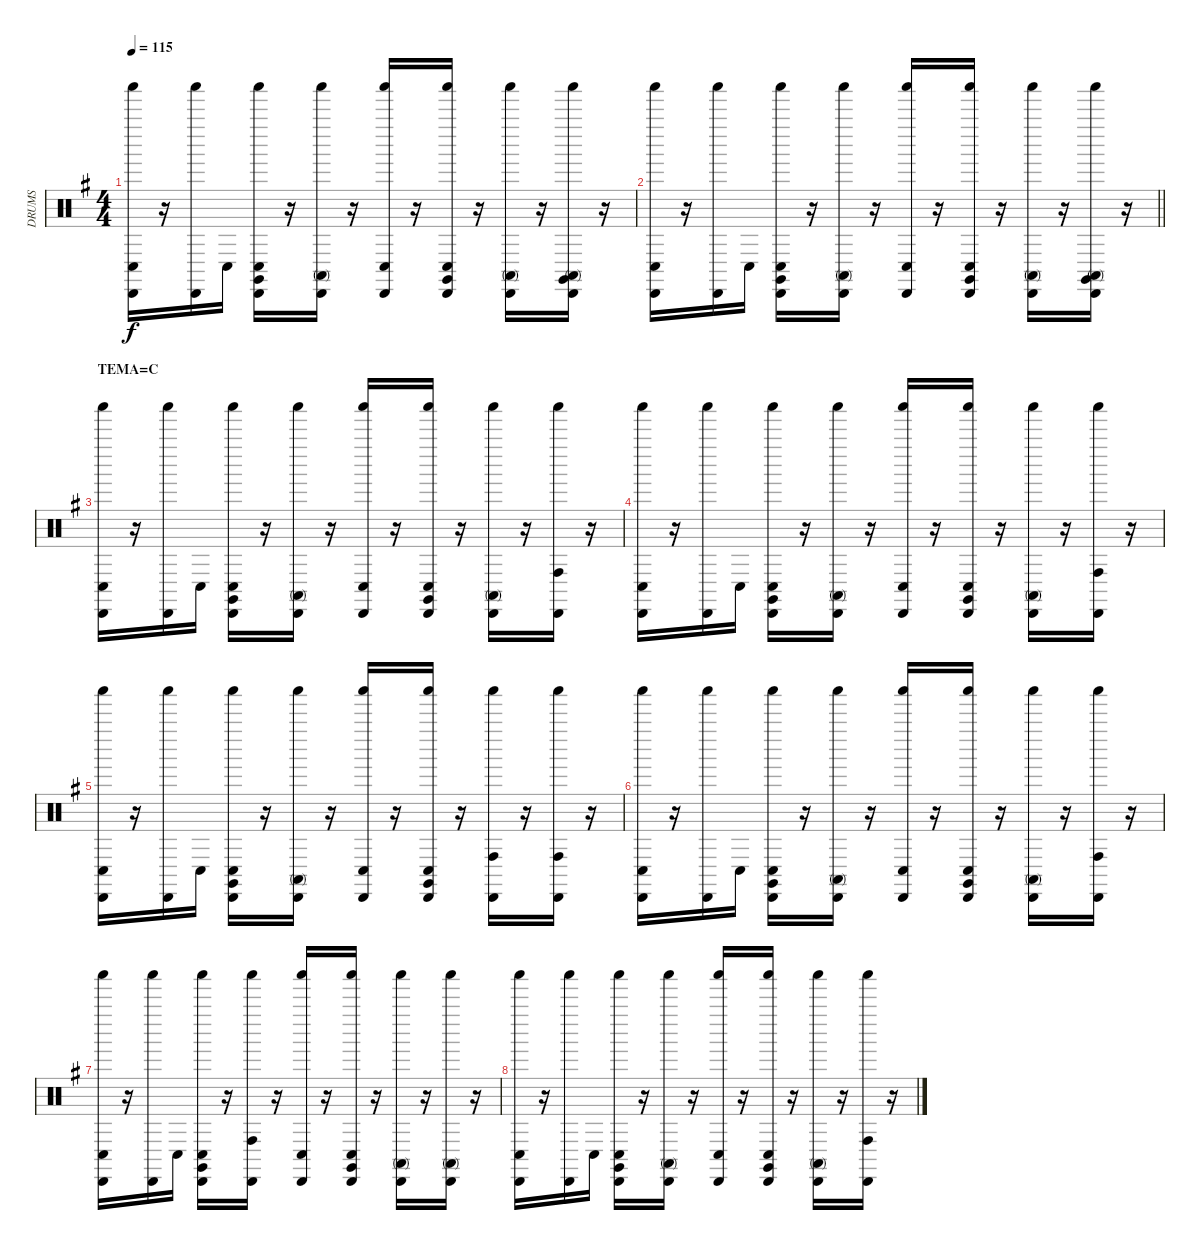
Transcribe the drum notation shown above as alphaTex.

\track ("DRUMS" "DRUMS") {instrument percussion}
\staff {score}
\articulation defaults
\ts (4 4)
\tempo 115
\clef neutral
\ks eminor
("Conga low (hit)" "Shaker (hit)" "Cabasa (hit)").16{dy f} r.16 ("Shaker (hit)" "Cabasa (hit)").16 "Conga low (hit)".16 ("Claves (hit)" "Shaker (hit)" "Conga low (hit)" "Cabasa (hit)").16 r.16 ("Conga high (mute)" "Cabasa (hit)" "Shaker (hit)").16 r.16 ("Shaker (hit)" "Cabasa (hit)" "Conga low (hit)").16 r.16 ("Claves (hit)" "Shaker (hit)" "Cabasa (hit)" "Conga low (hit)").16 r.16 ("Cabasa (hit)" "Shaker (hit)" "Conga high (mute)").16 r.16 ("Conga high (mute)" "Cabasa (hit)" "Claves (hit)" "Shaker (hit)").16 r.16 |
\barLineRight lightlight
("Shaker (hit)" "Conga low (hit)" "Cabasa (hit)").16 r.16 ("Cabasa (hit)" "Shaker (hit)").16 "Conga low (hit)".16 ("Claves (hit)" "Cabasa (hit)" "Conga low (hit)" "Shaker (hit)").16 r.16 ("Shaker (hit)" "Cabasa (hit)" "Conga high (mute)").16 r.16 ("Cabasa (hit)" "Conga low (hit)" "Shaker (hit)").16 r.16 ("Conga low (hit)" "Claves (hit)" "Cabasa (hit)" "Shaker (hit)").16 r.16 ("Shaker (hit)" "Cabasa (hit)" "Conga high (mute)").16 r.16 ("Conga high (mute)" "Shaker (hit)" "Cabasa (hit)" "Claves (hit)").16 r.16 |
\section ("" "TEMA=C")
("Conga low (hit)" "Cabasa (hit)" "Shaker (hit)").16 r.16 ("Shaker (hit)" "Cabasa (hit)").16 "Conga low (hit)".16 ("Shaker (hit)" "Cabasa (hit)" "Claves (hit)" "Conga low (hit)").16 r.16 ("Conga high (mute)" "Cabasa (hit)" "Shaker (hit)").16 r.16 ("Conga low (hit)" "Shaker (hit)" "Cabasa (hit)").16 r.16 ("Conga low (hit)" "Cabasa (hit)" "Shaker (hit)" "Claves (hit)").16 r.16 ("Shaker (hit)" "Cabasa (hit)" "Conga high (mute)").16 r.16 ("Shaker (hit)" "Cabasa (hit)" "Conga high (hit)").16 r.16 |
("Cabasa (hit)" "Shaker (hit)" "Conga low (hit)").16 r.16 ("Shaker (hit)" "Cabasa (hit)").16 "Conga low (hit)".16 ("Conga low (hit)" "Cabasa (hit)" "Claves (hit)" "Shaker (hit)").16 r.16 ("Cabasa (hit)" "Conga high (mute)" "Shaker (hit)").16 r.16 ("Shaker (hit)" "Conga low (hit)" "Cabasa (hit)").16 r.16 ("Shaker (hit)" "Claves (hit)" "Conga low (hit)" "Cabasa (hit)").16 r.16 ("Conga high (mute)" "Cabasa (hit)" "Shaker (hit)").16 r.16 ("Shaker (hit)" "Cabasa (hit)" "Conga high (hit)").16 r.16 |
("Shaker (hit)" "Conga low (hit)" "Cabasa (hit)").16 r.16 ("Cabasa (hit)" "Shaker (hit)").16 "Conga low (hit)".16 ("Cabasa (hit)" "Shaker (hit)" "Conga low (hit)" "Claves (hit)").16 r.16 ("Conga high (mute)" "Shaker (hit)" "Cabasa (hit)").16 r.16 ("Conga low (hit)" "Cabasa (hit)" "Shaker (hit)").16 r.16 ("Cabasa (hit)" "Shaker (hit)" "Conga low (hit)" "Claves (hit)").16 r.16 ("Conga high (hit)" "Shaker (hit)" "Cabasa (hit)").16 r.16 ("Shaker (hit)" "Conga high (hit)" "Cabasa (hit)").16 r.16 |
("Conga low (hit)" "Shaker (hit)" "Cabasa (hit)").16 r.16 ("Cabasa (hit)" "Shaker (hit)").16 "Conga low (hit)".16 ("Conga low (hit)" "Cabasa (hit)" "Claves (hit)" "Shaker (hit)").16 r.16 ("Conga high (mute)" "Shaker (hit)" "Cabasa (hit)").16 r.16 ("Shaker (hit)" "Conga low (hit)" "Cabasa (hit)").16 r.16 ("Cabasa (hit)" "Claves (hit)" "Conga low (hit)" "Shaker (hit)").16 r.16 ("Conga high (mute)" "Shaker (hit)" "Cabasa (hit)").16 r.16 ("Shaker (hit)" "Cabasa (hit)" "Conga high (hit)").16 r.16 |
("Conga low (hit)" "Cabasa (hit)" "Shaker (hit)").16 r.16 ("Cabasa (hit)" "Shaker (hit)").16 "Conga low (hit)".16 ("Claves (hit)" "Shaker (hit)" "Cabasa (hit)" "Conga low (hit)").16 r.16 ("Conga high (hit)" "Cabasa (hit)" "Shaker (hit)").16 r.16 ("Cabasa (hit)" "Conga low (hit)" "Shaker (hit)").16 r.16 ("Shaker (hit)" "Conga low (hit)" "Claves (hit)" "Cabasa (hit)").16 r.16 ("Shaker (hit)" "Cabasa (hit)" "Conga high (mute)").16 r.16 ("Conga high (mute)" "Cabasa (hit)" "Shaker (hit)").16 r.16 |
("Conga low (hit)" "Shaker (hit)" "Cabasa (hit)").16 r.16 ("Shaker (hit)" "Cabasa (hit)").16 "Conga low (hit)".16 ("Cabasa (hit)" "Claves (hit)" "Conga low (hit)" "Shaker (hit)").16 r.16 ("Shaker (hit)" "Conga high (mute)" "Cabasa (hit)").16 r.16 ("Conga low (hit)" "Shaker (hit)" "Cabasa (hit)").16 r.16 ("Claves (hit)" "Cabasa (hit)" "Conga low (hit)" "Shaker (hit)").16 r.16 ("Conga high (mute)" "Cabasa (hit)" "Shaker (hit)").16 r.16 ("Cabasa (hit)" "Conga high (hit)" "Shaker (hit)").16 r.16
